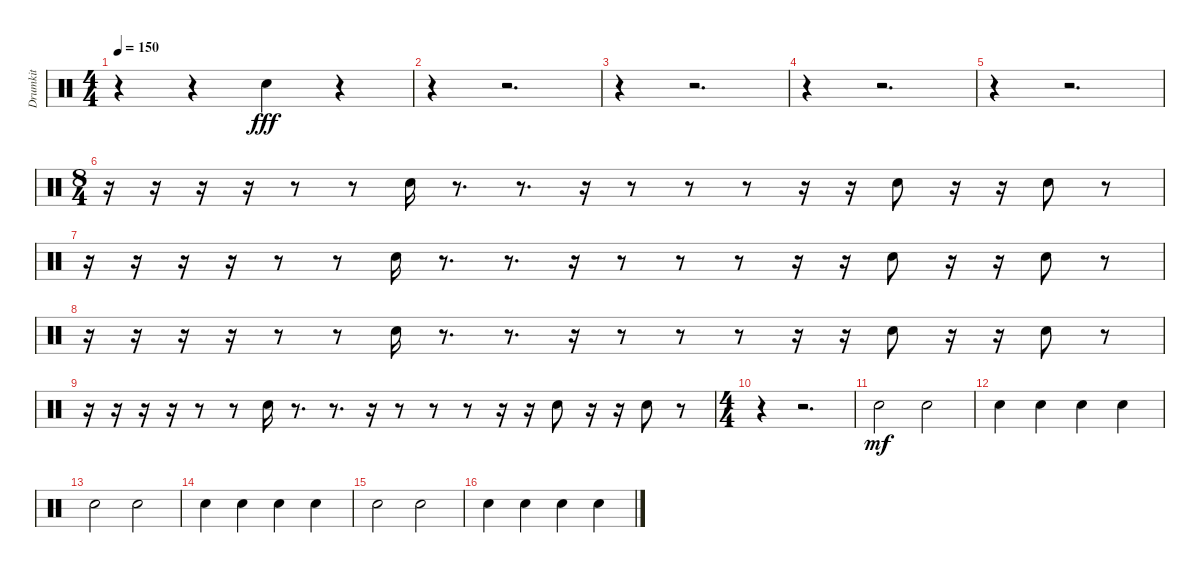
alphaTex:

\track ("Drumkit" "Drumkit") {instrument percussion}
\staff {score}
\articulation defaults
\ts (4 4)
\tempo 150
\clef neutral
\ks c
r.4{dy fff} r.4 "Snare (hit) 2".4 r.4 |
r.4 r.2{d} |
r.4 r.2{d} |
r.4 r.2{d} |
r.4 r.2{d} |
\ts (8 4)
r.16 r.16 r.16 r.16 r.8 r.8 "Snare (hit) 2".16 r.8{d} r.8{d} r.16 r.8 r.8 r.8 r.16 r.16 "Snare (hit) 2".8 r.16 r.16 "Snare (hit) 2".8 r.8 |
r.16 r.16 r.16 r.16 r.8 r.8 "Snare (hit) 2".16 r.8{d} r.8{d} r.16 r.8 r.8 r.8 r.16 r.16 "Snare (hit) 2".8 r.16 r.16 "Snare (hit) 2".8 r.8 |
r.16 r.16 r.16 r.16 r.8 r.8 "Snare (hit) 2".16 r.8{d} r.8{d} r.16 r.8 r.8 r.8 r.16 r.16 "Snare (hit) 2".8 r.16 r.16 "Snare (hit) 2".8 r.8 |
r.16 r.16 r.16 r.16 r.8 r.8 "Snare (hit) 2".16 r.8{d} r.8{d} r.16 r.8 r.8 r.8 r.16 r.16 "Snare (hit) 2".8 r.16 r.16 "Snare (hit) 2".8 r.8 |
\ts (4 4)
r.4 r.2{d} |
"Snare (hit) 2".2{dy mf} "Snare (hit) 2".2 |
"Snare (hit) 2".4 "Snare (hit) 2".4 "Snare (hit) 2".4 "Snare (hit) 2".4 |
"Snare (hit) 2".2 "Snare (hit) 2".2 |
"Snare (hit) 2".4 "Snare (hit) 2".4 "Snare (hit) 2".4 "Snare (hit) 2".4 |
"Snare (hit) 2".2 "Snare (hit) 2".2 |
"Snare (hit) 2".4 "Snare (hit) 2".4 "Snare (hit) 2".4 "Snare (hit) 2".4
